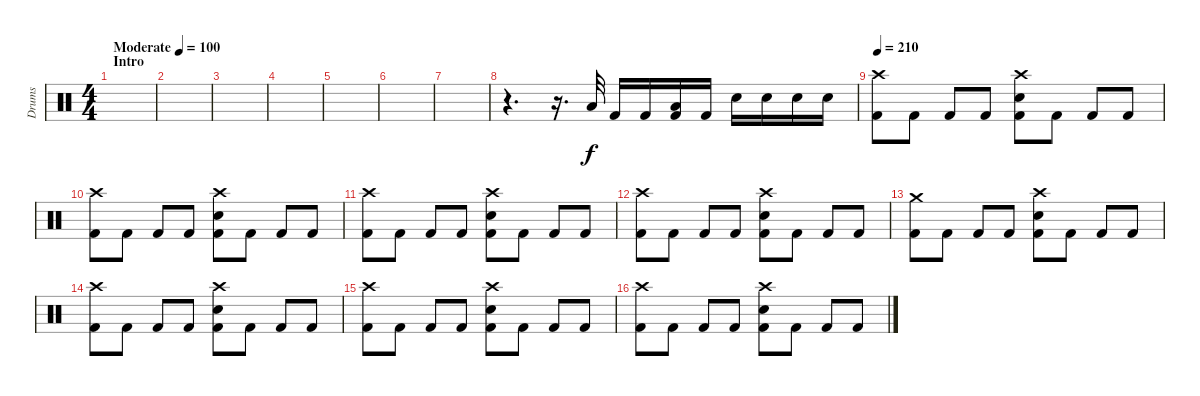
\track ("Drums" "Drums") {instrument percussion}
\staff {score}
\articulation defaults
\ts (4 4)
\section ("" "Intro")
\tempo (100 "Moderate")
\clef neutral
\ks c
|
|
|
|
|
|
|
r.4{d} r.16{d} "Low Tom (hit)".32 "Kick (hit) 2".16 "Kick (hit) 2".16 ("Low Tom (hit)" "Kick (hit) 2").16 "Kick (hit) 2".16 "Snare (hit) 2".16 "Snare (hit) 2".16 "Snare (hit) 2".16 "Snare (hit) 2".16 |
\tempo 210
("Crash high (hit)" "Kick (hit) 2").8 "Kick (hit) 2".8 "Kick (hit) 2".8 "Kick (hit) 2".8 ("Crash high (hit)" "Snare (hit) 2" "Kick (hit) 2").8 "Kick (hit) 2".8 "Kick (hit) 2".8 "Kick (hit) 2".8 |
("Crash high (hit)" "Kick (hit) 2").8 "Kick (hit) 2".8 "Kick (hit) 2".8 "Kick (hit) 2".8 ("Crash high (hit)" "Snare (hit) 2" "Kick (hit) 2").8 "Kick (hit) 2".8 "Kick (hit) 2".8 "Kick (hit) 2".8 |
("Crash high (hit)" "Kick (hit) 2").8 "Kick (hit) 2".8 "Kick (hit) 2".8 "Kick (hit) 2".8 ("Crash high (hit)" "Snare (hit) 2" "Kick (hit) 2").8 "Kick (hit) 2".8 "Kick (hit) 2".8 "Kick (hit) 2".8 |
("Crash high (hit)" "Kick (hit) 2").8 "Kick (hit) 2".8 "Kick (hit) 2".8 "Kick (hit) 2".8 ("Crash high (hit)" "Snare (hit) 2" "Kick (hit) 2").8 "Kick (hit) 2".8 "Kick (hit) 2".8 "Kick (hit) 2".8 |
("Crash medium (hit)" "Kick (hit) 2").8 "Kick (hit) 2".8 "Kick (hit) 2".8 "Kick (hit) 2".8 ("Crash high (hit)" "Snare (hit) 2" "Kick (hit) 2").8 "Kick (hit) 2".8 "Kick (hit) 2".8 "Kick (hit) 2".8 |
("Crash high (hit)" "Kick (hit) 2").8 "Kick (hit) 2".8 "Kick (hit) 2".8 "Kick (hit) 2".8 ("Crash high (hit)" "Snare (hit) 2" "Kick (hit) 2").8 "Kick (hit) 2".8 "Kick (hit) 2".8 "Kick (hit) 2".8 |
("Crash high (hit)" "Kick (hit) 2").8 "Kick (hit) 2".8 "Kick (hit) 2".8 "Kick (hit) 2".8 ("Crash high (hit)" "Snare (hit) 2" "Kick (hit) 2").8 "Kick (hit) 2".8 "Kick (hit) 2".8 "Kick (hit) 2".8 |
("Crash high (hit)" "Kick (hit) 2").8 "Kick (hit) 2".8 "Kick (hit) 2".8 "Kick (hit) 2".8 ("Crash high (hit)" "Snare (hit) 2" "Kick (hit) 2").8 "Kick (hit) 2".8 "Kick (hit) 2".8 "Kick (hit) 2".8
